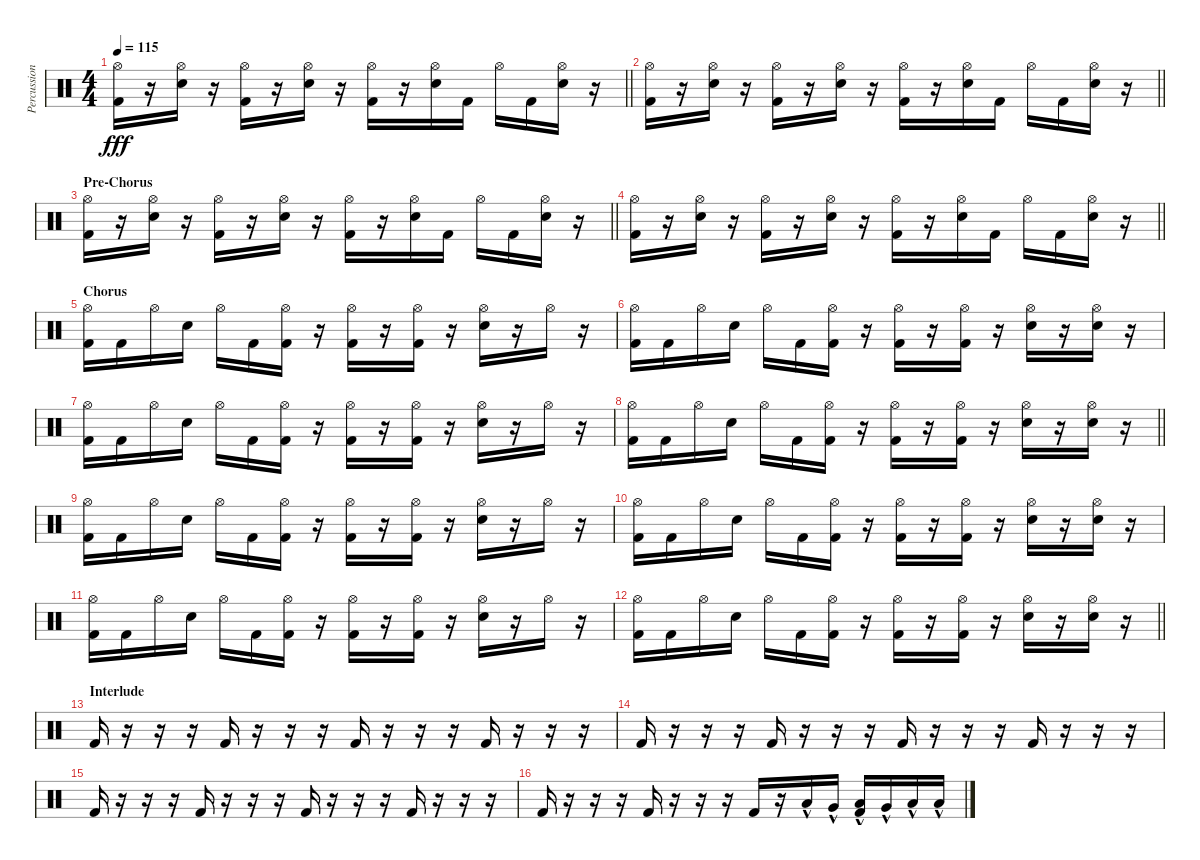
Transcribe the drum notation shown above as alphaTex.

\track ("Percussion 2" "Percussion") {instrument percussion}
\staff {score}
\articulation defaults
\ts (4 4)
\tempo 115
\clef neutral
\barLineRight lightlight
\ks c
("Hi-Hat (open)" "Kick (hit) 2").16{dy fff} r.16 ("Hi-Hat (open)" "Electric Snare (hit)").16 r.16 ("Hi-Hat (open)" "Kick (hit) 2").16 r.16 ("Hi-Hat (open)" "Electric Snare (hit)").16 r.16 ("Hi-Hat (open)" "Kick (hit) 2").16 r.16 ("Hi-Hat (open)" "Electric Snare (hit)").16 "Kick (hit) 2".16 "Hi-Hat (open)".16 "Kick (hit) 2".16 ("Hi-Hat (open)" "Electric Snare (hit)").16 r.16 |
\barLineRight lightlight
("Hi-Hat (open)" "Kick (hit) 2").16 r.16 ("Hi-Hat (open)" "Electric Snare (hit)").16 r.16 ("Hi-Hat (open)" "Kick (hit) 2").16 r.16 ("Hi-Hat (open)" "Electric Snare (hit)").16 r.16 ("Hi-Hat (open)" "Kick (hit) 2").16 r.16 ("Hi-Hat (open)" "Electric Snare (hit)").16 "Kick (hit) 2".16 "Hi-Hat (open)".16 "Kick (hit) 2".16 ("Hi-Hat (open)" "Electric Snare (hit)").16 r.16 |
\section ("" "Pre-Chorus")
\barLineRight lightlight
("Hi-Hat (open)" "Kick (hit) 2").16 r.16 ("Hi-Hat (open)" "Electric Snare (hit)").16 r.16 ("Hi-Hat (open)" "Kick (hit) 2").16 r.16 ("Hi-Hat (open)" "Electric Snare (hit)").16 r.16 ("Hi-Hat (open)" "Kick (hit) 2").16 r.16 ("Hi-Hat (open)" "Electric Snare (hit)").16 "Kick (hit) 2".16 "Hi-Hat (open)".16 "Kick (hit) 2".16 ("Hi-Hat (open)" "Electric Snare (hit)").16 r.16 |
\barLineRight lightlight
("Hi-Hat (open)" "Kick (hit) 2").16 r.16 ("Hi-Hat (open)" "Electric Snare (hit)").16 r.16 ("Hi-Hat (open)" "Kick (hit) 2").16 r.16 ("Hi-Hat (open)" "Electric Snare (hit)").16 r.16 ("Hi-Hat (open)" "Kick (hit) 2").16 r.16 ("Hi-Hat (open)" "Electric Snare (hit)").16 "Kick (hit) 2".16 "Hi-Hat (open)".16 "Kick (hit) 2".16 ("Hi-Hat (open)" "Electric Snare (hit)").16 r.16 |
\section ("" "Chorus")
("Hi-Hat (open)" "Kick (hit) 2").16 "Kick (hit) 2".16 "Hi-Hat (open)".16 "Electric Snare (hit)".16 "Hi-Hat (open)".16 "Kick (hit) 2".16 ("Hi-Hat (open)" "Kick (hit) 2").16 r.16 ("Hi-Hat (open)" "Kick (hit) 2").16 r.16 ("Hi-Hat (open)" "Kick (hit) 2").16 r.16 ("Hi-Hat (open)" "Electric Snare (hit)").16 r.16 "Hi-Hat (open)".16 r.16 |
("Hi-Hat (open)" "Kick (hit) 2").16 "Kick (hit) 2".16 "Hi-Hat (open)".16 "Electric Snare (hit)".16 "Hi-Hat (open)".16 "Kick (hit) 2".16 ("Hi-Hat (open)" "Kick (hit) 2").16 r.16 ("Hi-Hat (open)" "Kick (hit) 2").16 r.16 ("Hi-Hat (open)" "Kick (hit) 2").16 r.16 ("Hi-Hat (open)" "Electric Snare (hit)").16 r.16 ("Hi-Hat (open)" "Electric Snare (hit)").16 r.16 |
("Hi-Hat (open)" "Kick (hit) 2").16 "Kick (hit) 2".16 "Hi-Hat (open)".16 "Electric Snare (hit)".16 "Hi-Hat (open)".16 "Kick (hit) 2".16 ("Hi-Hat (open)" "Kick (hit) 2").16 r.16 ("Hi-Hat (open)" "Kick (hit) 2").16 r.16 ("Hi-Hat (open)" "Kick (hit) 2").16 r.16 ("Hi-Hat (open)" "Electric Snare (hit)").16 r.16 "Hi-Hat (open)".16 r.16 |
\barLineRight lightlight
("Hi-Hat (open)" "Kick (hit) 2").16 "Kick (hit) 2".16 "Hi-Hat (open)".16 "Electric Snare (hit)".16 "Hi-Hat (open)".16 "Kick (hit) 2".16 ("Hi-Hat (open)" "Kick (hit) 2").16 r.16 ("Hi-Hat (open)" "Kick (hit) 2").16 r.16 ("Hi-Hat (open)" "Kick (hit) 2").16 r.16 ("Hi-Hat (open)" "Electric Snare (hit)").16 r.16 ("Hi-Hat (open)" "Electric Snare (hit)").16 r.16 |
("Hi-Hat (open)" "Kick (hit) 2").16 "Kick (hit) 2".16 "Hi-Hat (open)".16 "Electric Snare (hit)".16 "Hi-Hat (open)".16 "Kick (hit) 2".16 ("Hi-Hat (open)" "Kick (hit) 2").16 r.16 ("Hi-Hat (open)" "Kick (hit) 2").16 r.16 ("Hi-Hat (open)" "Kick (hit) 2").16 r.16 ("Hi-Hat (open)" "Electric Snare (hit)").16 r.16 "Hi-Hat (open)".16 r.16 |
("Hi-Hat (open)" "Kick (hit) 2").16 "Kick (hit) 2".16 "Hi-Hat (open)".16 "Electric Snare (hit)".16 "Hi-Hat (open)".16 "Kick (hit) 2".16 ("Hi-Hat (open)" "Kick (hit) 2").16 r.16 ("Hi-Hat (open)" "Kick (hit) 2").16 r.16 ("Hi-Hat (open)" "Kick (hit) 2").16 r.16 ("Hi-Hat (open)" "Electric Snare (hit)").16 r.16 ("Hi-Hat (open)" "Electric Snare (hit)").16 r.16 |
("Hi-Hat (open)" "Kick (hit) 2").16 "Kick (hit) 2".16 "Hi-Hat (open)".16 "Electric Snare (hit)".16 "Hi-Hat (open)".16 "Kick (hit) 2".16 ("Hi-Hat (open)" "Kick (hit) 2").16 r.16 ("Hi-Hat (open)" "Kick (hit) 2").16 r.16 ("Hi-Hat (open)" "Kick (hit) 2").16 r.16 ("Hi-Hat (open)" "Electric Snare (hit)").16 r.16 "Hi-Hat (open)".16 r.16 |
\barLineRight lightlight
("Hi-Hat (open)" "Kick (hit) 2").16 "Kick (hit) 2".16 "Hi-Hat (open)".16 "Electric Snare (hit)".16 "Hi-Hat (open)".16 "Kick (hit) 2".16 ("Hi-Hat (open)" "Kick (hit) 2").16 r.16 ("Hi-Hat (open)" "Kick (hit) 2").16 r.16 ("Hi-Hat (open)" "Kick (hit) 2").16 r.16 ("Hi-Hat (open)" "Electric Snare (hit)").16 r.16 ("Hi-Hat (open)" "Electric Snare (hit)").16 r.16 |
\section ("" "Interlude")
"Kick (hit) 2".16 r.16 r.16 r.16 "Kick (hit) 2".16 r.16 r.16 r.16 "Kick (hit) 2".16 r.16 r.16 r.16 "Kick (hit) 2".16 r.16 r.16 r.16 |
"Kick (hit) 2".16 r.16 r.16 r.16 "Kick (hit) 2".16 r.16 r.16 r.16 "Kick (hit) 2".16 r.16 r.16 r.16 "Kick (hit) 2".16 r.16 r.16 r.16 |
"Kick (hit) 2".16 r.16 r.16 r.16 "Kick (hit) 2".16 r.16 r.16 r.16 "Kick (hit) 2".16 r.16 r.16 r.16 "Kick (hit) 2".16 r.16 r.16 r.16 |
"Kick (hit) 2".16 r.16 r.16 r.16 "Kick (hit) 2".16 r.16 r.16 r.16 "Kick (hit) 2".16 r.16 "Low Tom (hit)"{hac}.16 "Very Low Tom (hit)"{hac}.16 ("Low Tom (hit)"{hac} "Kick (hit) 2").16 "Very Low Tom (hit)"{hac}.16 "Low Tom (hit)"{hac}.16 "Low Tom (hit)"{hac}.16
